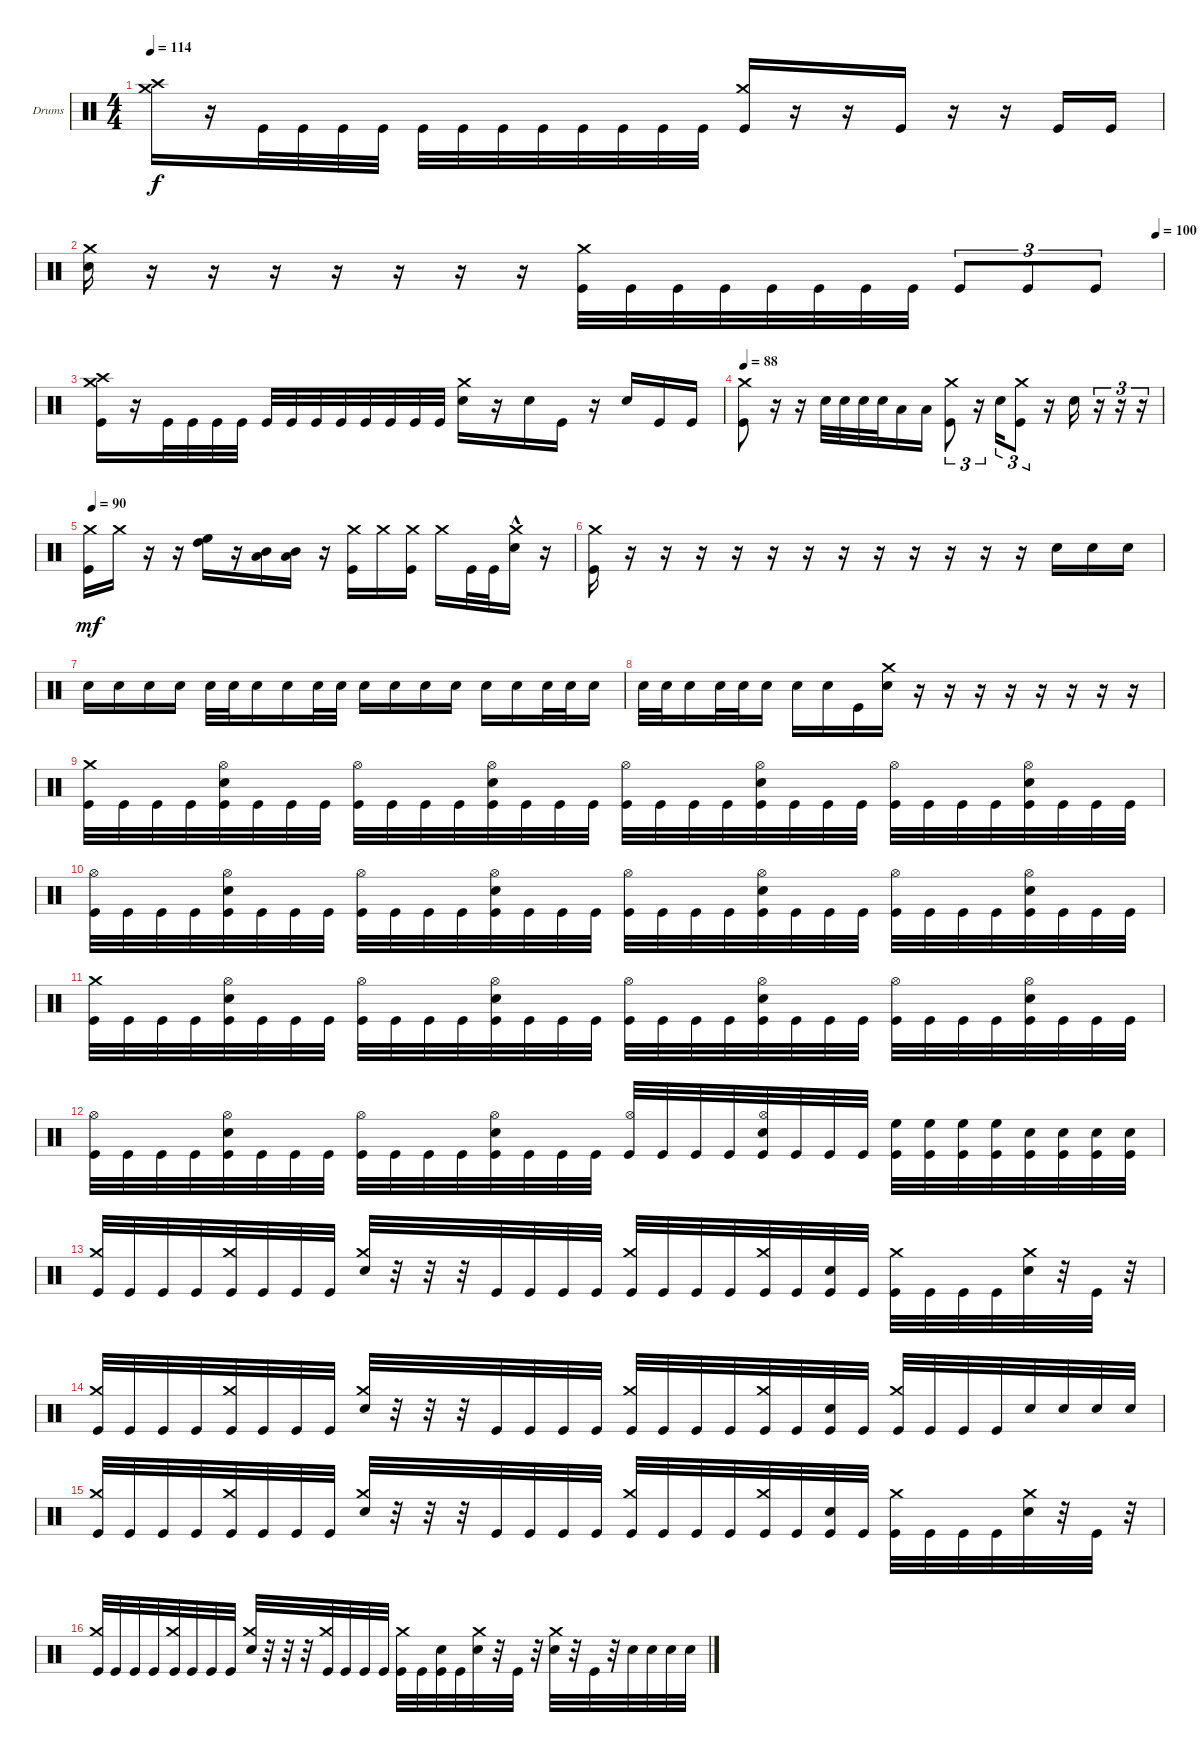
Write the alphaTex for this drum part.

\defaultSystemsLayout 4
\bracketExtendMode groupsimilarinstruments
\firstSystemTrackNameOrientation horizontal
\otherSystemsTrackNameOrientation horizontal
\track ("Drumkit" "Drums") {instrument percussion}
\staff {score}
\articulation defaults
\ts (4 4)
\tempo 114
\clef neutral
\ks c
("Crash medium (hit)" "Crash high (hit)").16{dy f} r.16 "Kick (hit)".32 "Kick (hit)".32 "Kick (hit)".32 "Kick (hit)".32 "Kick (hit)".32 "Kick (hit)".32 "Kick (hit)".32 "Kick (hit)".32 "Kick (hit)".32 "Kick (hit)".32 "Kick (hit)".32 "Kick (hit)".32 ("Kick (hit)" "Crash medium (hit)").16{beam invert} r.16 r.16 "Kick (hit)".16 r.16 r.16 "Kick (hit)".16 "Kick (hit)".16 |
\tempo (100 0.99375)
("Snare (hit) 2" "Crash medium (hit)").16 r.16 r.16 r.16 r.16 r.16 r.16 r.16 ("Kick (hit)" "Crash medium (hit)").32 "Kick (hit)".32 "Kick (hit)".32 "Kick (hit)".32 "Kick (hit)".32 "Kick (hit)".32 "Kick (hit)".32 "Kick (hit)".32 "Kick (hit)".8{tu (3 2)} "Kick (hit)".8{tu (3 2)} "Kick (hit)".8{tu (3 2)} |
("Kick (hit)" "Crash medium (hit)" "Crash high (hit)").16 r.16 "Kick (hit)".32 "Kick (hit)".32 "Kick (hit)".32 "Kick (hit)".32 "Kick (hit)".32 "Kick (hit)".32 "Kick (hit)".32 "Kick (hit)".32 "Kick (hit)".32 "Kick (hit)".32 "Kick (hit)".32 "Kick (hit)".32 ("Snare (hit) 2" "Crash medium (hit)").16 r.16 "Snare (hit) 2".16 "Kick (hit)".16 r.16 "Snare (hit) 2".16 "Kick (hit)".16 "Kick (hit)".16 |
\tempo 88
("Kick (hit)" "Crash medium (hit)").8 r.16 r.16 "Snare (hit) 2".32 "Snare (hit) 2".32 "Snare (hit) 2".32 "Snare (hit) 2".32 "Low Tom (hit)".16 "Low Tom (hit)".16 ("Kick (hit)" "Crash medium (hit)").8{tu (3 2)} r.16{tu (3 2)} "Snare (hit) 2".16{tu (3 2)} ("Kick (hit)" "Crash medium (hit)").8{tu (3 2)} r.16 "Snare (hit) 2".16 r.16{tu (3 2)} r.16{tu (3 2)} r.16{tu (3 2)} |
\tempo (90 0.00625)
("Kick (hit)" "Crash medium (hit)").16{dy mf} "Crash medium (hit)".16 r.16 r.16 ("High Floor Tom (hit)" "High Tom (hit)").16 r.16 ("Mid Tom (hit)" "Low Tom (hit)").16 ("Mid Tom (hit)" "Low Tom (hit)").16 r.16 ("Kick (hit)" "Crash medium (hit)").16 "Crash medium (hit)".16 ("Kick (hit)" "Crash medium (hit)").16 "Crash medium (hit)".16 "Kick (hit)".32 "Kick (hit)".32 ("Snare (hit) 2" "Crash medium (hit)"{hac}).16 r.16 |
("Kick (hit)" "Crash medium (hit)").16 r.16 r.16 r.16 r.16 r.16 r.16 r.16 r.16 r.16 r.16 r.16 r.16 "Snare (hit) 2".16 "Snare (hit) 2".16 "Snare (hit) 2".16 |
"Snare (hit) 2".16 "Snare (hit) 2".16 "Snare (hit) 2".16 "Snare (hit) 2".16 "Snare (hit) 2".32 "Snare (hit) 2".32 "Snare (hit) 2".16 "Snare (hit) 2".16 "Snare (hit) 2".32 "Snare (hit) 2".32 "Snare (hit) 2".16 "Snare (hit) 2".16 "Snare (hit) 2".16 "Snare (hit) 2".16 "Snare (hit) 2".16 "Snare (hit) 2".16 "Snare (hit) 2".32 "Snare (hit) 2".32 "Snare (hit) 2".16 |
"Snare (hit) 2".32 "Snare (hit) 2".32 "Snare (hit) 2".16 "Snare (hit) 2".32 "Snare (hit) 2".32 "Snare (hit) 2".16 "Snare (hit) 2".16 "Snare (hit) 2".16 "Kick (hit)".16 ("Snare (hit) 2" "Crash medium (hit)").16 r.16 r.16 r.16 r.16 r.16 r.16 r.16 r.16 |
("Kick (hit)" "Crash medium (hit)").32 "Kick (hit)".32 "Kick (hit)".32 "Kick (hit)".32 ("Kick (hit)" "Hi-Hat (open)" "Snare (hit) 2").32 "Kick (hit)".32 "Kick (hit)".32 "Kick (hit)".32 ("Kick (hit)" "Hi-Hat (open)").32 "Kick (hit)".32 "Kick (hit)".32 "Kick (hit)".32 ("Kick (hit)" "Hi-Hat (open)" "Snare (hit) 2").32 "Kick (hit)".32 "Kick (hit)".32 "Kick (hit)".32 ("Kick (hit)" "Hi-Hat (open)").32 "Kick (hit)".32 "Kick (hit)".32 "Kick (hit)".32 ("Kick (hit)" "Hi-Hat (open)" "Snare (hit) 2").32 "Kick (hit)".32 "Kick (hit)".32 "Kick (hit)".32 ("Kick (hit)" "Hi-Hat (open)").32 "Kick (hit)".32 "Kick (hit)".32 "Kick (hit)".32 ("Kick (hit)" "Hi-Hat (open)" "Snare (hit) 2").32 "Kick (hit)".32 "Kick (hit)".32 "Kick (hit)".32 |
("Kick (hit)" "Hi-Hat (open)").32 "Kick (hit)".32 "Kick (hit)".32 "Kick (hit)".32 ("Kick (hit)" "Hi-Hat (open)" "Snare (hit) 2").32 "Kick (hit)".32 "Kick (hit)".32 "Kick (hit)".32 ("Kick (hit)" "Hi-Hat (open)").32 "Kick (hit)".32 "Kick (hit)".32 "Kick (hit)".32 ("Kick (hit)" "Hi-Hat (open)" "Snare (hit) 2").32 "Kick (hit)".32 "Kick (hit)".32 "Kick (hit)".32 ("Kick (hit)" "Hi-Hat (open)").32 "Kick (hit)".32 "Kick (hit)".32 "Kick (hit)".32 ("Kick (hit)" "Hi-Hat (open)" "Snare (hit) 2").32 "Kick (hit)".32 "Kick (hit)".32 "Kick (hit)".32 ("Kick (hit)" "Hi-Hat (open)").32 "Kick (hit)".32 "Kick (hit)".32 "Kick (hit)".32 ("Kick (hit)" "Hi-Hat (open)" "Snare (hit) 2").32 "Kick (hit)".32 "Kick (hit)".32 "Kick (hit)".32 |
("Kick (hit)" "Crash medium (hit)").32 "Kick (hit)".32 "Kick (hit)".32 "Kick (hit)".32 ("Kick (hit)" "Hi-Hat (open)" "Snare (hit) 2").32 "Kick (hit)".32 "Kick (hit)".32 "Kick (hit)".32 ("Kick (hit)" "Hi-Hat (open)").32 "Kick (hit)".32 "Kick (hit)".32 "Kick (hit)".32 ("Kick (hit)" "Hi-Hat (open)" "Snare (hit) 2").32 "Kick (hit)".32 "Kick (hit)".32 "Kick (hit)".32 ("Kick (hit)" "Hi-Hat (open)").32 "Kick (hit)".32 "Kick (hit)".32 "Kick (hit)".32 ("Kick (hit)" "Hi-Hat (open)" "Snare (hit) 2").32 "Kick (hit)".32 "Kick (hit)".32 "Kick (hit)".32 ("Kick (hit)" "Hi-Hat (open)").32 "Kick (hit)".32 "Kick (hit)".32 "Kick (hit)".32 ("Kick (hit)" "Hi-Hat (open)" "Snare (hit) 2").32 "Kick (hit)".32 "Kick (hit)".32 "Kick (hit)".32 |
("Kick (hit)" "Hi-Hat (open)").32 "Kick (hit)".32 "Kick (hit)".32 "Kick (hit)".32 ("Kick (hit)" "Hi-Hat (open)" "Snare (hit) 2").32 "Kick (hit)".32 "Kick (hit)".32 "Kick (hit)".32 ("Kick (hit)" "Hi-Hat (open)").32 "Kick (hit)".32 "Kick (hit)".32 "Kick (hit)".32 ("Kick (hit)" "Hi-Hat (open)" "Snare (hit) 2").32 "Kick (hit)".32 "Kick (hit)".32 "Kick (hit)".32 ("Kick (hit)" "Hi-Hat (open)").32 "Kick (hit)".32 "Kick (hit)".32 "Kick (hit)".32 ("Kick (hit)" "Hi-Hat (open)" "Snare (hit) 2").32 "Kick (hit)".32 "Kick (hit)".32 "Kick (hit)".32 ("Kick (hit)" "High Floor Tom (hit)").32{beam invert} ("Kick (hit)" "High Floor Tom (hit)").32 ("Kick (hit)" "High Floor Tom (hit)").32 ("Kick (hit)" "High Floor Tom (hit)").32 ("Kick (hit)" "Snare (hit) 2").32 ("Kick (hit)" "Snare (hit) 2").32 ("Kick (hit)" "Snare (hit) 2").32 ("Kick (hit)" "Snare (hit) 2").32 |
("Kick (hit)" "Crash medium (hit)").32{beam invert} "Kick (hit)".32 "Kick (hit)".32 "Kick (hit)".32 ("Kick (hit)" "Crash medium (hit)").32 "Kick (hit)".32 "Kick (hit)".32 "Kick (hit)".32 ("Snare (hit) 2" "Crash medium (hit)").32 r.32 r.32 r.32 "Kick (hit)".32 "Kick (hit)".32 "Kick (hit)".32 "Kick (hit)".32 ("Kick (hit)" "Crash medium (hit)").32{beam invert} "Kick (hit)".32 "Kick (hit)".32 "Kick (hit)".32 ("Kick (hit)" "Crash medium (hit)").32 "Kick (hit)".32 ("Kick (hit)" "Snare (hit) 2").32 "Kick (hit)".32 ("Kick (hit)" "Crash medium (hit)").32 "Kick (hit)".32 "Kick (hit)".32 "Kick (hit)".32 ("Snare (hit) 2" "Crash medium (hit)").32 r.32 "Kick (hit)".32 r.32 |
("Kick (hit)" "Crash medium (hit)").32{beam invert} "Kick (hit)".32 "Kick (hit)".32 "Kick (hit)".32 ("Kick (hit)" "Crash medium (hit)").32 "Kick (hit)".32 "Kick (hit)".32 "Kick (hit)".32 ("Snare (hit) 2" "Crash medium (hit)").32 r.32 r.32 r.32 "Kick (hit)".32 "Kick (hit)".32 "Kick (hit)".32 "Kick (hit)".32 ("Kick (hit)" "Crash medium (hit)").32{beam invert} "Kick (hit)".32 "Kick (hit)".32 "Kick (hit)".32 ("Kick (hit)" "Crash medium (hit)").32 "Kick (hit)".32 ("Kick (hit)" "Snare (hit) 2").32 "Kick (hit)".32 ("Kick (hit)" "Crash medium (hit)").32{beam invert} "Kick (hit)".32 "Kick (hit)".32 "Kick (hit)".32 "Snare (hit) 2".32 "Snare (hit) 2".32 "Snare (hit) 2".32 "Snare (hit) 2".32 |
("Kick (hit)" "Crash medium (hit)").32{beam invert} "Kick (hit)".32 "Kick (hit)".32 "Kick (hit)".32 ("Kick (hit)" "Crash medium (hit)").32 "Kick (hit)".32 "Kick (hit)".32 "Kick (hit)".32 ("Snare (hit) 2" "Crash medium (hit)").32 r.32 r.32 r.32 "Kick (hit)".32 "Kick (hit)".32 "Kick (hit)".32 "Kick (hit)".32 ("Kick (hit)" "Crash medium (hit)").32{beam invert} "Kick (hit)".32 "Kick (hit)".32 "Kick (hit)".32 ("Kick (hit)" "Crash medium (hit)").32 "Kick (hit)".32 ("Kick (hit)" "Snare (hit) 2").32 "Kick (hit)".32 ("Kick (hit)" "Crash medium (hit)").32 "Kick (hit)".32 "Kick (hit)".32 "Kick (hit)".32 ("Snare (hit) 2" "Crash medium (hit)").32 r.32 "Kick (hit)".32 r.32 |
("Kick (hit)" "Crash medium (hit)").32{beam invert} "Kick (hit)".32 "Kick (hit)".32 "Kick (hit)".32 ("Kick (hit)" "Crash medium (hit)").32 "Kick (hit)".32 "Kick (hit)".32 "Kick (hit)".32 ("Snare (hit) 2" "Crash medium (hit)").32{beam invert} r.32 r.32 r.32 ("Kick (hit)" "Crash medium (hit)").32 "Kick (hit)".32 "Kick (hit)".32 "Kick (hit)".32 ("Kick (hit)" "Crash medium (hit)").32 "Kick (hit)".32 ("Kick (hit)" "Snare (hit) 2").32 "Kick (hit)".32 ("Snare (hit) 2" "Crash medium (hit)").32 r.32 "Kick (hit)".32 r.32 ("Snare (hit) 2" "Crash medium (hit)").32 r.32 "Kick (hit)".32 r.32 "Snare (hit) 2".32 "Snare (hit) 2".32 "Snare (hit) 2".32 "Snare (hit) 2".32
